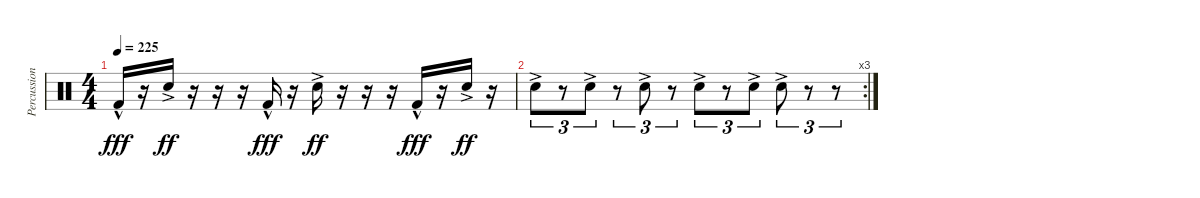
\track ("Percussion" "Percussion") {instrument percussion bank 2}
\staff {score}
\articulation defaults
\ts (4 4)
\tempo 225
\clef neutral
\ks c "Kick (hit) 2"{hac}.16{dy fff}
r.16 "Snare (hit) 2"{ac}.16{dy ff} r.16 r.16 r.16 "Kick (hit) 2"{hac}.16{dy fff} r.16 "Snare (hit) 2"{ac}.16{dy ff} r.16 r.16 r.16 "Kick (hit) 2"{hac}.16{dy fff} r.16 "Snare (hit) 2"{ac}.16{dy ff} r.16 |
\rc 3 "Snare (hit) 2"{ac}.8{tu (3 2)}
r.8{tu (3 2)} "Snare (hit) 2"{ac}.8{tu (3 2)} r.8{tu (3 2)} "Snare (hit) 2"{ac}.8{tu (3 2)} r.8{tu (3 2)} "Snare (hit) 2"{ac}.8{tu (3 2)} r.8{tu (3 2)} "Snare (hit) 2"{ac}.8{tu (3 2)} "Snare (hit) 2"{ac}.8{tu (3 2)} r.8{tu (3 2)} r.8{tu (3 2)}
